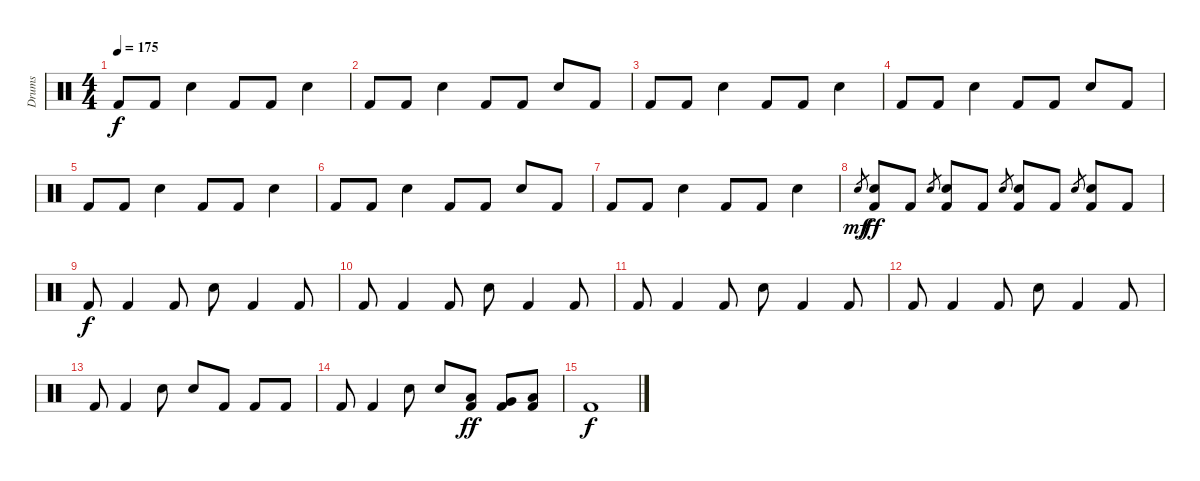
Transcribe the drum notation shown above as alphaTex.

\track ("Drums" "Drums") {instrument percussion}
\staff {score}
\articulation defaults
\ts (4 4)
\tempo 175
\clef neutral
\ks c "Kick (hit) 2".8{dy f} "Kick (hit) 2".8 "Snare (hit) 2".4 "Kick (hit) 2".8 "Kick (hit) 2".8 "Snare (hit) 2".4
|
"Kick (hit) 2".8 "Kick (hit) 2".8 "Snare (hit) 2".4 "Kick (hit) 2".8 "Kick (hit) 2".8 "Snare (hit) 2".8 "Kick (hit) 2".8 |
"Kick (hit) 2".8 "Kick (hit) 2".8 "Snare (hit) 2".4 "Kick (hit) 2".8 "Kick (hit) 2".8 "Snare (hit) 2".4 |
"Kick (hit) 2".8 "Kick (hit) 2".8 "Snare (hit) 2".4 "Kick (hit) 2".8 "Kick (hit) 2".8 "Snare (hit) 2".8 "Kick (hit) 2".8 |
"Kick (hit) 2".8 "Kick (hit) 2".8 "Snare (hit) 2".4 "Kick (hit) 2".8 "Kick (hit) 2".8 "Snare (hit) 2".4 |
"Kick (hit) 2".8 "Kick (hit) 2".8 "Snare (hit) 2".4 "Kick (hit) 2".8 "Kick (hit) 2".8 "Snare (hit) 2".8 "Kick (hit) 2".8 |
"Kick (hit) 2".8 "Kick (hit) 2".8 "Snare (hit) 2".4 "Kick (hit) 2".8 "Kick (hit) 2".8 "Snare (hit) 2".4 |
"Snare (hit) 2".8{gr dy mf} ("Snare (hit) 2" "Kick (hit) 2").8{dy ff} "Kick (hit) 2".8 "Snare (hit) 2".8{gr} ("Snare (hit) 2" "Kick (hit) 2").8 "Kick (hit) 2".8 "Snare (hit) 2".8{gr} ("Snare (hit) 2" "Kick (hit) 2").8 "Kick (hit) 2".8 "Snare (hit) 2".8{gr} ("Snare (hit) 2" "Kick (hit) 2").8 "Kick (hit) 2".8 |
"Kick (hit) 2".8{dy f} "Kick (hit) 2".4 "Kick (hit) 2".8 "Snare (hit) 2".8 "Kick (hit) 2".4 "Kick (hit) 2".8 |
"Kick (hit) 2".8 "Kick (hit) 2".4 "Kick (hit) 2".8 "Snare (hit) 2".8 "Kick (hit) 2".4 "Kick (hit) 2".8 |
"Kick (hit) 2".8 "Kick (hit) 2".4 "Kick (hit) 2".8 "Snare (hit) 2".8 "Kick (hit) 2".4 "Kick (hit) 2".8 |
"Kick (hit) 2".8 "Kick (hit) 2".4 "Kick (hit) 2".8 "Snare (hit) 2".8 "Kick (hit) 2".4 "Kick (hit) 2".8 |
"Kick (hit) 2".8 "Kick (hit) 2".4 "Snare (hit) 2".8 "Snare (hit) 2".8 "Kick (hit) 2".8 "Kick (hit) 2".8 "Kick (hit) 2".8 |
"Kick (hit) 2".8 "Kick (hit) 2".4 "Snare (hit) 2".8 "Snare (hit) 2".8 ("Low Tom (hit)" "Kick (hit) 2").8{dy ff} ("Very Low Tom (hit)" "Kick (hit) 2").8 ("Low Floor Tom (hit)" "Kick (hit) 2").8 |
"Kick (hit) 2".1{dy f}
